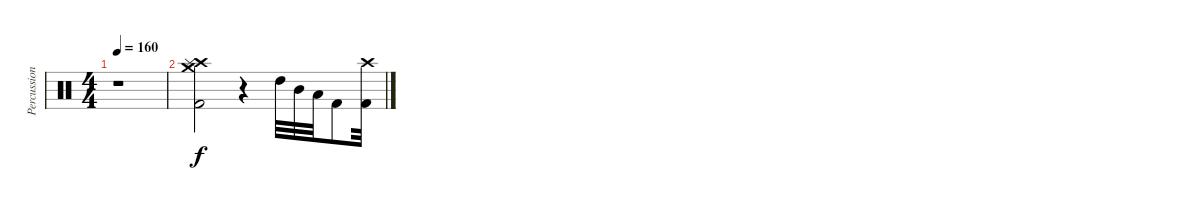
\track ("Percussion" "Percussion") {instrument percussion}
\staff {score}
\articulation defaults
\ts (4 4)
\tempo 160
\clef neutral
\ks c
r.1{dy f} |
("Crash high (hit)" "Crash medium (hit)" "Splash (hit)" "Kick (hit) 2").2 r.4 "High Tom (hit)".32 "Mid Tom (hit)".32 "Low Tom (hit)".32 "Kick (hit) 2".8 ("Crash high (hit)" "Kick (hit) 2").32
